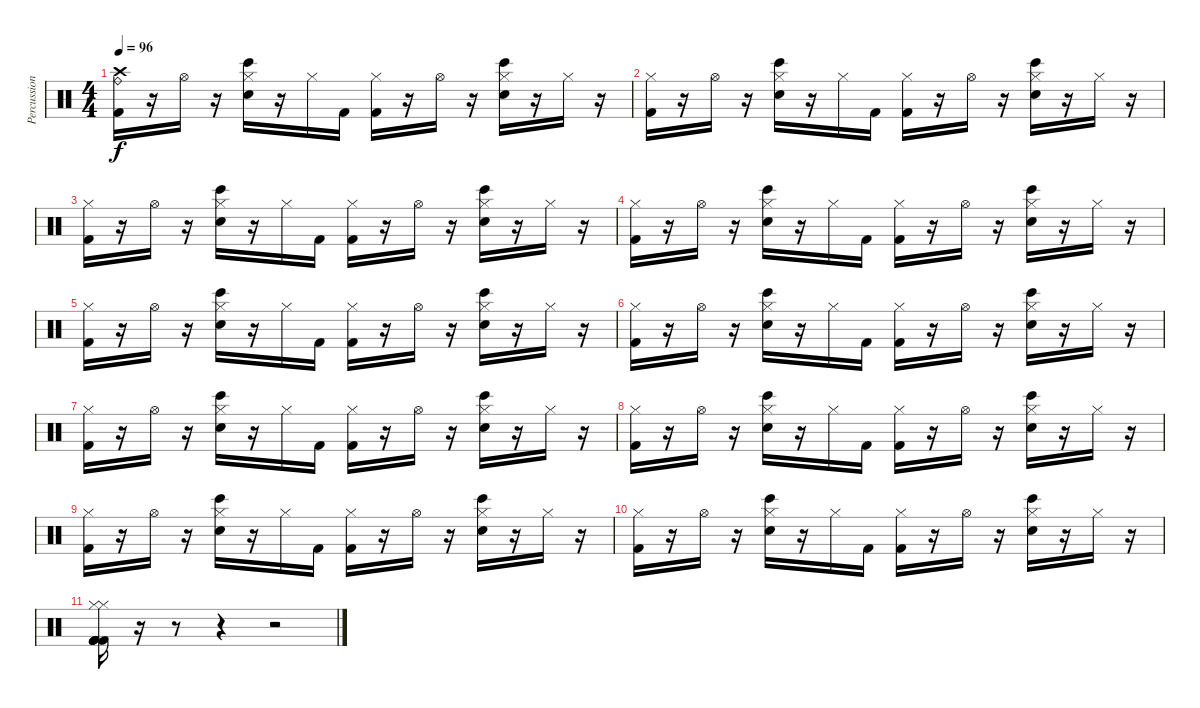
\track ("Percussion" "Percussion") {instrument percussion}
\staff {score}
\articulation defaults
\ts (4 4)
\tempo 96
\clef neutral
\ks c
("Crash high (hit)" "Ride (bell)" "Kick (hit) 2").16{dy f} r.16 "Hi-Hat (open)".16 r.16 ("Hi-Hat (closed)" "Bongo High (hit)" "Snare (hit) 2").16 r.16 "Hi-Hat (closed)".16 "Kick (hit) 2".16 ("Hi-Hat (closed)" "Kick (hit) 2").16 r.16 "Hi-Hat (open)".16 r.16 ("Hi-Hat (closed)" "Bongo High (hit)" "Snare (hit) 2").16 r.16 "Hi-Hat (closed)".16 r.16 |
("Hi-Hat (closed)" "Kick (hit) 2").16 r.16 "Hi-Hat (open)".16 r.16 ("Hi-Hat (closed)" "Bongo High (hit)" "Snare (hit) 2").16 r.16 "Hi-Hat (closed)".16 "Kick (hit) 2".16 ("Hi-Hat (closed)" "Kick (hit) 2").16 r.16 "Hi-Hat (open)".16 r.16 ("Hi-Hat (closed)" "Bongo High (hit)" "Snare (hit) 2").16 r.16 "Hi-Hat (closed)".16 r.16 |
("Hi-Hat (closed)" "Kick (hit) 2").16 r.16 "Hi-Hat (open)".16 r.16 ("Hi-Hat (closed)" "Bongo High (hit)" "Snare (hit) 2").16 r.16 "Hi-Hat (closed)".16 "Kick (hit) 2".16 ("Hi-Hat (closed)" "Kick (hit) 2").16 r.16 "Hi-Hat (open)".16 r.16 ("Hi-Hat (closed)" "Bongo High (hit)" "Snare (hit) 2").16 r.16 "Hi-Hat (closed)".16 r.16 |
("Hi-Hat (closed)" "Kick (hit) 2").16 r.16 "Hi-Hat (open)".16 r.16 ("Hi-Hat (closed)" "Bongo High (hit)" "Snare (hit) 2").16 r.16 "Hi-Hat (closed)".16 "Kick (hit) 2".16 ("Hi-Hat (closed)" "Kick (hit) 2").16 r.16 "Hi-Hat (open)".16 r.16 ("Hi-Hat (closed)" "Bongo High (hit)" "Snare (hit) 2").16 r.16 "Hi-Hat (closed)".16 r.16 |
("Hi-Hat (closed)" "Kick (hit) 2").16 r.16 "Hi-Hat (open)".16 r.16 ("Hi-Hat (closed)" "Bongo High (hit)" "Snare (hit) 2").16 r.16 "Hi-Hat (closed)".16 "Kick (hit) 2".16 ("Hi-Hat (closed)" "Kick (hit) 2").16 r.16 "Hi-Hat (open)".16 r.16 ("Hi-Hat (closed)" "Bongo High (hit)" "Snare (hit) 2").16 r.16 "Hi-Hat (closed)".16 r.16 |
("Hi-Hat (closed)" "Kick (hit) 2").16 r.16 "Hi-Hat (open)".16 r.16 ("Hi-Hat (closed)" "Bongo High (hit)" "Snare (hit) 2").16 r.16 "Hi-Hat (closed)".16 "Kick (hit) 2".16 ("Hi-Hat (closed)" "Kick (hit) 2").16 r.16 "Hi-Hat (open)".16 r.16 ("Hi-Hat (closed)" "Bongo High (hit)" "Snare (hit) 2").16 r.16 "Hi-Hat (closed)".16 r.16 |
("Hi-Hat (closed)" "Kick (hit) 2").16 r.16 "Hi-Hat (open)".16 r.16 ("Hi-Hat (closed)" "Bongo High (hit)" "Snare (hit) 2").16 r.16 "Hi-Hat (closed)".16 "Kick (hit) 2".16 ("Hi-Hat (closed)" "Kick (hit) 2").16 r.16 "Hi-Hat (open)".16 r.16 ("Hi-Hat (closed)" "Bongo High (hit)" "Snare (hit) 2").16 r.16 "Hi-Hat (closed)".16 r.16 |
("Hi-Hat (closed)" "Kick (hit) 2").16 r.16 "Hi-Hat (open)".16 r.16 ("Hi-Hat (closed)" "Bongo High (hit)" "Snare (hit) 2").16 r.16 "Hi-Hat (closed)".16 "Kick (hit) 2".16 ("Hi-Hat (closed)" "Kick (hit) 2").16 r.16 "Hi-Hat (open)".16 r.16 ("Hi-Hat (closed)" "Bongo High (hit)" "Snare (hit) 2").16 r.16 "Hi-Hat (closed)".16 r.16 |
("Hi-Hat (closed)" "Kick (hit) 2").16 r.16 "Hi-Hat (open)".16 r.16 ("Hi-Hat (closed)" "Bongo High (hit)" "Snare (hit) 2").16 r.16 "Hi-Hat (closed)".16 "Kick (hit) 2".16 ("Hi-Hat (closed)" "Kick (hit) 2").16 r.16 "Hi-Hat (open)".16 r.16 ("Hi-Hat (closed)" "Bongo High (hit)" "Snare (hit) 2").16 r.16 "Hi-Hat (closed)".16 r.16 |
("Hi-Hat (closed)" "Kick (hit) 2").16 r.16 "Hi-Hat (open)".16 r.16 ("Hi-Hat (closed)" "Bongo High (hit)" "Snare (hit) 2").16 r.16 "Hi-Hat (closed)".16 "Kick (hit) 2".16 ("Hi-Hat (closed)" "Kick (hit) 2").16 r.16 "Hi-Hat (open)".16 r.16 ("Hi-Hat (closed)" "Bongo High (hit)" "Snare (hit) 2").16 r.16 "Hi-Hat (closed)".16 r.16 |
("Hi-Hat (closed)" "Hi-Hat (closed)" "Kick (hit) 2" "Kick (hit) 2" "Kick (hit) 2" "Kick (hit) 2").16 r.16 r.8 r.4 r.2
